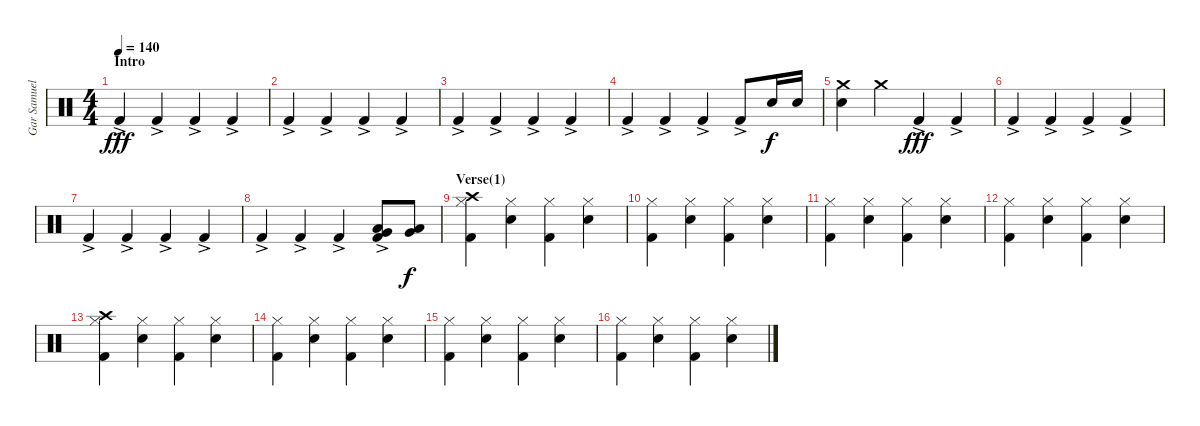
\track ("Gar Samuelson (Drums)" "Gar Samuel") {instrument percussion}
\staff {score}
\articulation defaults
\ts (4 4)
\section ("" "Intro")
\tempo 140
\clef neutral
\ks c "Kick (hit) 2"{ac}.4{dy fff} "Kick (hit) 2"{ac}.4 "Kick (hit) 2"{ac}.4 "Kick (hit) 2"{ac}.4
|
"Kick (hit) 2"{ac}.4 "Kick (hit) 2"{ac}.4 "Kick (hit) 2"{ac}.4 "Kick (hit) 2"{ac}.4 |
"Kick (hit) 2"{ac}.4 "Kick (hit) 2"{ac}.4 "Kick (hit) 2"{ac}.4 "Kick (hit) 2"{ac}.4 |
"Kick (hit) 2"{ac}.4 "Kick (hit) 2"{ac}.4 "Kick (hit) 2"{ac}.4 "Kick (hit) 2"{ac}.8 "Electric Snare (hit)".16{dy f} "Electric Snare (hit)".16 |
("Electric Snare (hit)" "Crash medium (hit)").4 "Crash medium (hit)".4 "Kick (hit) 2"{ac}.4{dy fff} "Kick (hit) 2"{ac}.4 |
"Kick (hit) 2"{ac}.4 "Kick (hit) 2"{ac}.4 "Kick (hit) 2"{ac}.4 "Kick (hit) 2"{ac}.4 |
"Kick (hit) 2"{ac}.4 "Kick (hit) 2"{ac}.4 "Kick (hit) 2"{ac}.4 "Kick (hit) 2"{ac}.4 |
"Kick (hit) 2"{ac}.4 "Kick (hit) 2"{ac}.4 "Kick (hit) 2"{ac}.4 ("Low Tom (hit)" "Kick (hit) 2"{ac} "Very Low Tom (hit)").8 ("Low Tom (hit)" "Very Low Tom (hit)").8{dy f} |
\section ("" "Verse(1)")
("Crash high (hit)" "Hi-Hat (closed)" "Kick (hit) 2").4 ("Electric Snare (hit)" "Hi-Hat (closed)").4 ("Hi-Hat (closed)" "Kick (hit) 2").4 ("Electric Snare (hit)" "Hi-Hat (closed)").4 |
("Hi-Hat (closed)" "Kick (hit) 2").4 ("Electric Snare (hit)" "Hi-Hat (closed)").4 ("Hi-Hat (closed)" "Kick (hit) 2").4 ("Electric Snare (hit)" "Hi-Hat (closed)").4 |
("Hi-Hat (closed)" "Kick (hit) 2").4 ("Electric Snare (hit)" "Hi-Hat (closed)").4 ("Hi-Hat (closed)" "Kick (hit) 2").4 ("Electric Snare (hit)" "Hi-Hat (closed)").4 |
("Hi-Hat (closed)" "Kick (hit) 2").4 ("Electric Snare (hit)" "Hi-Hat (closed)").4 ("Hi-Hat (closed)" "Kick (hit) 2").4 ("Electric Snare (hit)" "Hi-Hat (closed)").4 |
("Crash high (hit)" "Hi-Hat (closed)" "Kick (hit) 2").4 ("Electric Snare (hit)" "Hi-Hat (closed)").4 ("Hi-Hat (closed)" "Kick (hit) 2").4 ("Electric Snare (hit)" "Hi-Hat (closed)").4 |
("Hi-Hat (closed)" "Kick (hit) 2").4 ("Electric Snare (hit)" "Hi-Hat (closed)").4 ("Hi-Hat (closed)" "Kick (hit) 2").4 ("Electric Snare (hit)" "Hi-Hat (closed)").4 |
("Hi-Hat (closed)" "Kick (hit) 2").4 ("Electric Snare (hit)" "Hi-Hat (closed)").4 ("Hi-Hat (closed)" "Kick (hit) 2").4 ("Electric Snare (hit)" "Hi-Hat (closed)").4 |
("Hi-Hat (closed)" "Kick (hit) 2").4 ("Electric Snare (hit)" "Hi-Hat (closed)").4 ("Hi-Hat (closed)" "Kick (hit) 2").4 ("Electric Snare (hit)" "Hi-Hat (closed)").4
